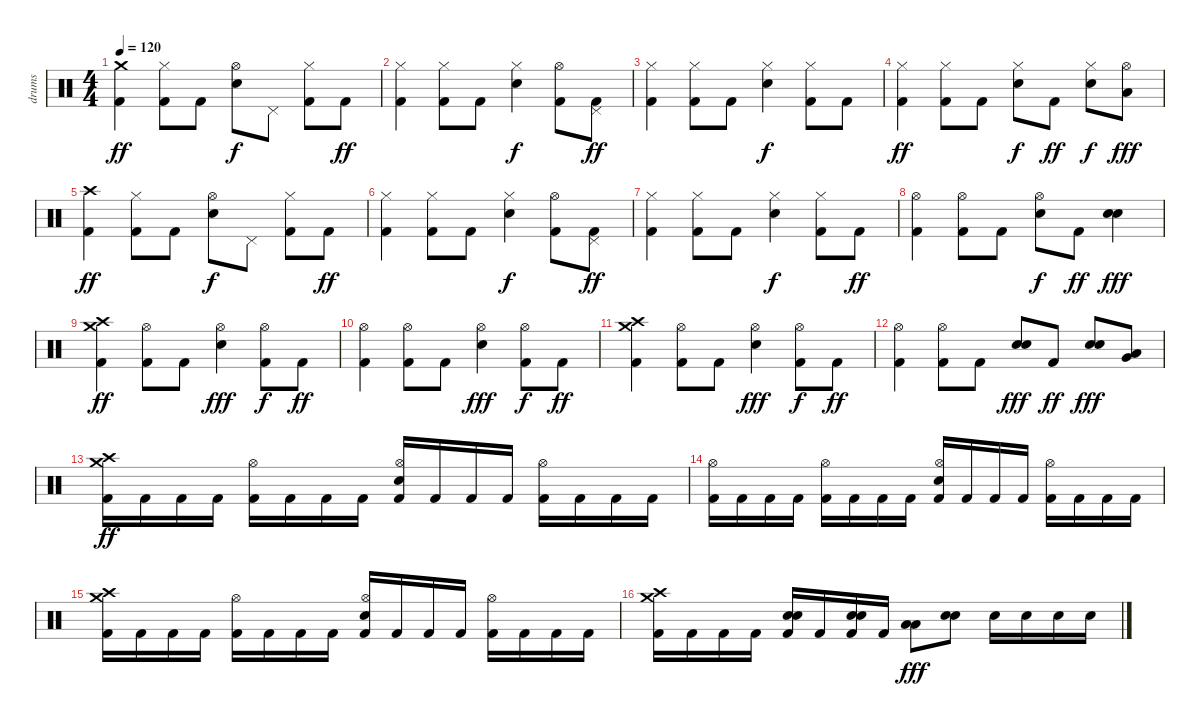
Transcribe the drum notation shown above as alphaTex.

\track ("drums" "drums") {instrument percussion}
\staff {score}
\articulation defaults
\ts (4 4)
\tempo 120
\clef neutral
\ks c
("Crash medium (hit)" "Kick (hit) 2").4{dy ff} ("Hi-Hat (closed)" "Kick (hit) 2").8 "Kick (hit) 2".8 ("Hi-Hat (open)" "Electric Snare (hit)").8{dy f} "Pedal Hi-Hat (hit)".8 ("Hi-Hat (closed)" "Kick (hit) 2").8 "Kick (hit) 2".8{dy ff} |
("Hi-Hat (closed)" "Kick (hit) 2").4 ("Hi-Hat (closed)" "Kick (hit) 2").8 "Kick (hit) 2".8 ("Hi-Hat (closed)" "Electric Snare (hit)").4{dy f} ("Hi-Hat (open)" "Kick (hit) 2").8 ("Pedal Hi-Hat (hit)" "Kick (hit) 2").8{dy ff} |
("Hi-Hat (closed)" "Kick (hit) 2").4 ("Hi-Hat (closed)" "Kick (hit) 2").8 "Kick (hit) 2".8 ("Hi-Hat (closed)" "Electric Snare (hit)").4{dy f} ("Hi-Hat (closed)" "Kick (hit) 2").8 "Kick (hit) 2".8 |
("Hi-Hat (closed)" "Kick (hit) 2").4{dy ff} ("Hi-Hat (closed)" "Kick (hit) 2").8 "Kick (hit) 2".8 ("Hi-Hat (closed)" "Electric Snare (hit)").8{dy f} "Kick (hit) 2".8{dy ff} ("Hi-Hat (closed)" "Electric Snare (hit)").8{dy f} ("Hi-Hat (open)" "Low Floor Tom (hit)").8{dy fff} |
("Crash high (hit)" "Kick (hit) 2").4{dy ff} ("Hi-Hat (closed)" "Kick (hit) 2").8 "Kick (hit) 2".8 ("Hi-Hat (open)" "Electric Snare (hit)").8{dy f} "Pedal Hi-Hat (hit)".8 ("Hi-Hat (closed)" "Kick (hit) 2").8 "Kick (hit) 2".8{dy ff} |
("Hi-Hat (closed)" "Kick (hit) 2").4 ("Hi-Hat (closed)" "Kick (hit) 2").8 "Kick (hit) 2".8 ("Hi-Hat (closed)" "Electric Snare (hit)").4{dy f} ("Hi-Hat (open)" "Kick (hit) 2").8 ("Pedal Hi-Hat (hit)" "Kick (hit) 2").8{dy ff} |
("Hi-Hat (closed)" "Kick (hit) 2").4 ("Hi-Hat (closed)" "Kick (hit) 2").8 "Kick (hit) 2".8 ("Hi-Hat (closed)" "Electric Snare (hit)").4{dy f} ("Hi-Hat (closed)" "Kick (hit) 2").8 "Kick (hit) 2".8{dy ff} |
("Hi-Hat (open)" "Kick (hit) 2").4 ("Hi-Hat (open)" "Kick (hit) 2").8 "Kick (hit) 2".8 ("Hi-Hat (open)" "Electric Snare (hit)").8{dy f} "Kick (hit) 2".8{dy ff} ("Electric Snare (hit)" "Electric Snare (hit)").4{dy fff} |
("Crash medium (hit)" "Crash high (hit)" "Kick (hit) 2").4{dy ff} ("Hi-Hat (open)" "Kick (hit) 2").8 "Kick (hit) 2".8 ("Hi-Hat (open)" "Electric Snare (hit)").4{dy fff} ("Hi-Hat (open)" "Kick (hit) 2").8{dy f} "Kick (hit) 2".8{dy ff} |
("Hi-Hat (open)" "Kick (hit) 2").4 ("Hi-Hat (open)" "Kick (hit) 2").8 "Kick (hit) 2".8 ("Hi-Hat (open)" "Electric Snare (hit)").4{dy fff} ("Hi-Hat (open)" "Kick (hit) 2").8{dy f} "Kick (hit) 2".8{dy ff} |
("Crash medium (hit)" "Crash high (hit)" "Kick (hit) 2").4 ("Hi-Hat (open)" "Kick (hit) 2").8 "Kick (hit) 2".8 ("Hi-Hat (open)" "Electric Snare (hit)").4{dy fff} ("Hi-Hat (open)" "Kick (hit) 2").8{dy f} "Kick (hit) 2".8{dy ff} |
("Hi-Hat (open)" "Kick (hit) 2").4 ("Hi-Hat (open)" "Kick (hit) 2").8 "Kick (hit) 2".8 ("Electric Snare (hit)" "Electric Snare (hit)").8{dy fff} "Kick (hit) 2".8{dy ff} ("Electric Snare (hit)" "Electric Snare (hit)").8{dy fff} ("Very Low Tom (hit)" "Low Floor Tom (hit)").8 |
("Crash medium (hit)" "Crash high (hit)" "Kick (hit) 2").16{dy ff} "Kick (hit) 2".16 "Kick (hit) 2".16 "Kick (hit) 2".16 ("Hi-Hat (open)" "Kick (hit) 2").16 "Kick (hit) 2".16 "Kick (hit) 2".16 "Kick (hit) 2".16 ("Hi-Hat (open)" "Electric Snare (hit)" "Kick (hit) 2").16 "Kick (hit) 2".16 "Kick (hit) 2".16 "Kick (hit) 2".16 ("Hi-Hat (open)" "Kick (hit) 2").16 "Kick (hit) 2".16 "Kick (hit) 2".16 "Kick (hit) 2".16 |
("Hi-Hat (open)" "Kick (hit) 2").16 "Kick (hit) 2".16 "Kick (hit) 2".16 "Kick (hit) 2".16 ("Hi-Hat (open)" "Kick (hit) 2").16 "Kick (hit) 2".16 "Kick (hit) 2".16 "Kick (hit) 2".16 ("Hi-Hat (open)" "Electric Snare (hit)" "Kick (hit) 2").16 "Kick (hit) 2".16 "Kick (hit) 2".16 "Kick (hit) 2".16 ("Hi-Hat (open)" "Kick (hit) 2").16 "Kick (hit) 2".16 "Kick (hit) 2".16 "Kick (hit) 2".16 |
("Crash medium (hit)" "Crash high (hit)" "Kick (hit) 2").16 "Kick (hit) 2".16 "Kick (hit) 2".16 "Kick (hit) 2".16 ("Hi-Hat (open)" "Kick (hit) 2").16 "Kick (hit) 2".16 "Kick (hit) 2".16 "Kick (hit) 2".16 ("Hi-Hat (open)" "Electric Snare (hit)" "Kick (hit) 2").16 "Kick (hit) 2".16 "Kick (hit) 2".16 "Kick (hit) 2".16 ("Hi-Hat (open)" "Kick (hit) 2").16 "Kick (hit) 2".16 "Kick (hit) 2".16 "Kick (hit) 2".16 |
("Crash medium (hit)" "Crash high (hit)" "Kick (hit) 2").16 "Kick (hit) 2".16 "Kick (hit) 2".16 "Kick (hit) 2".16 ("Electric Snare (hit)" "Electric Snare (hit)" "Kick (hit) 2").16 "Kick (hit) 2".16 ("Electric Snare (hit)" "Electric Snare (hit)" "Kick (hit) 2").16 "Kick (hit) 2".16 ("Low Tom (hit)" "Low Tom (hit)").8{dy fff} ("Electric Snare (hit)" "Electric Snare (hit)").8 "Electric Snare (hit)".16 "Electric Snare (hit)".16 "Electric Snare (hit)".16 "Electric Snare (hit)".16
